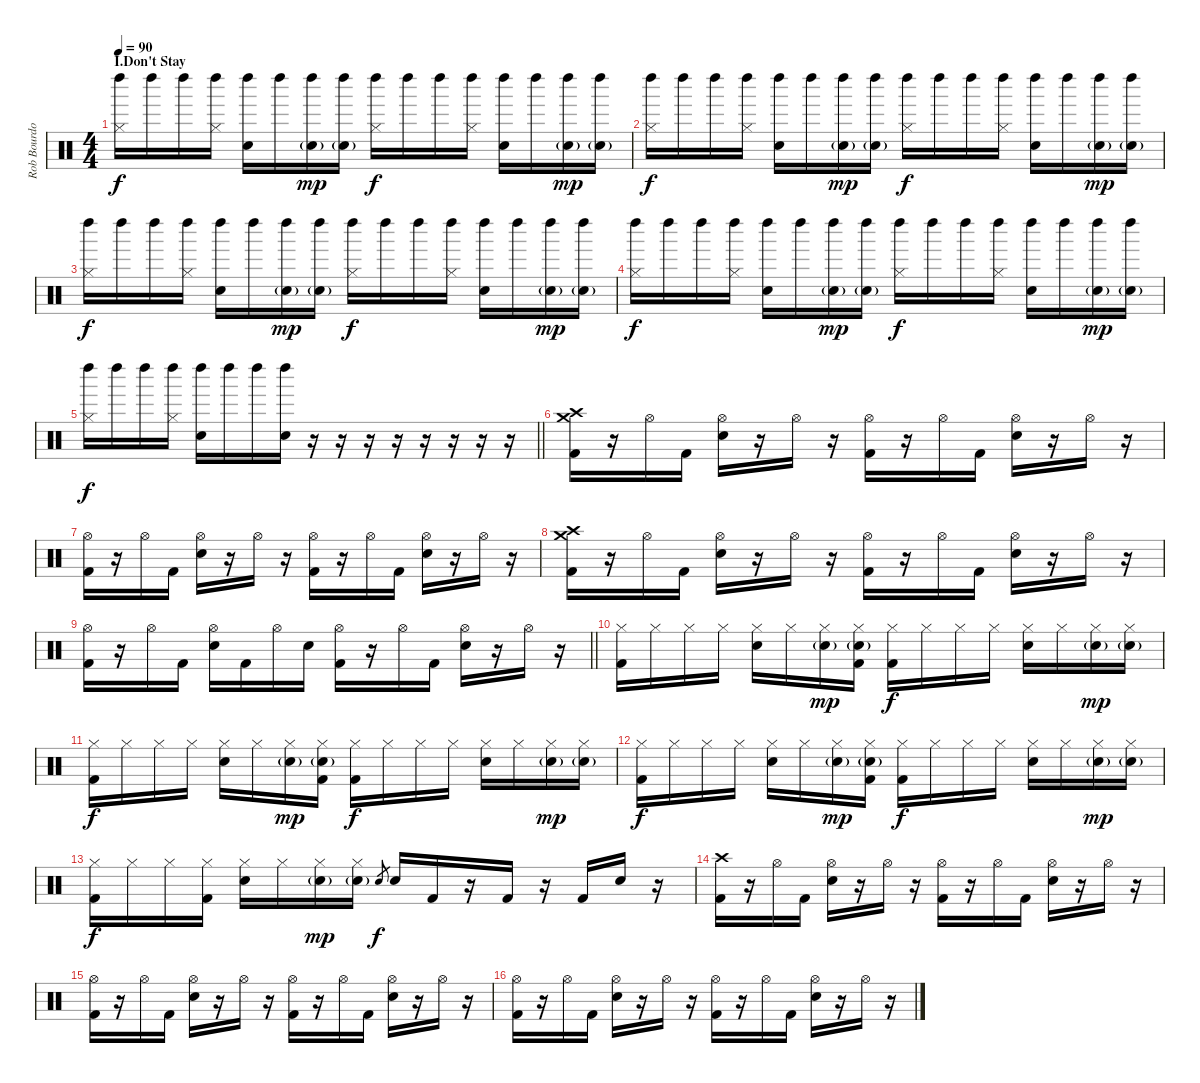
\track ("Rob Bourdon - Drums" "Rob Bourdo") {instrument percussion}
\staff {score}
\articulation defaults
\ts (4 4)
\section ("" "I.Don't Stay")
\tempo 90
\clef neutral
\ks c
("Left Maraca (hit)" "Hi-Hat (closed)").16{dy f} "Left Maraca (hit)".16 "Left Maraca (hit)".16 ("Left Maraca (hit)" "Hi-Hat (closed)").16 ("Left Maraca (hit)" "Hand Clap (hit)").16 "Left Maraca (hit)".16 ("Left Maraca (hit)" "Hand Clap (hit)"{g}).16{dy mp} ("Left Maraca (hit)" "Hand Clap (hit)"{g}).16 ("Left Maraca (hit)" "Hi-Hat (closed)").16{dy f} "Left Maraca (hit)".16 "Left Maraca (hit)".16 ("Left Maraca (hit)" "Hi-Hat (closed)").16 ("Left Maraca (hit)" "Hand Clap (hit)").16 "Left Maraca (hit)".16 ("Left Maraca (hit)" "Hand Clap (hit)"{g}).16{dy mp} ("Left Maraca (hit)" "Hand Clap (hit)"{g}).16 |
("Left Maraca (hit)" "Hi-Hat (closed)").16{dy f} "Left Maraca (hit)".16 "Left Maraca (hit)".16 ("Left Maraca (hit)" "Hi-Hat (closed)").16 ("Left Maraca (hit)" "Hand Clap (hit)").16 "Left Maraca (hit)".16 ("Left Maraca (hit)" "Hand Clap (hit)"{g}).16{dy mp} ("Left Maraca (hit)" "Hand Clap (hit)"{g}).16 ("Left Maraca (hit)" "Hi-Hat (closed)").16{dy f} "Left Maraca (hit)".16 "Left Maraca (hit)".16 ("Left Maraca (hit)" "Hi-Hat (closed)").16 ("Left Maraca (hit)" "Hand Clap (hit)").16 "Left Maraca (hit)".16 ("Left Maraca (hit)" "Hand Clap (hit)"{g}).16{dy mp} ("Left Maraca (hit)" "Hand Clap (hit)"{g}).16 |
("Left Maraca (hit)" "Hi-Hat (closed)").16{dy f} "Left Maraca (hit)".16 "Left Maraca (hit)".16 ("Left Maraca (hit)" "Hi-Hat (closed)").16 ("Left Maraca (hit)" "Hand Clap (hit)").16 "Left Maraca (hit)".16 ("Left Maraca (hit)" "Hand Clap (hit)"{g}).16{dy mp} ("Left Maraca (hit)" "Hand Clap (hit)"{g}).16 ("Left Maraca (hit)" "Hi-Hat (closed)").16{dy f} "Left Maraca (hit)".16 "Left Maraca (hit)".16 ("Left Maraca (hit)" "Hi-Hat (closed)").16 ("Left Maraca (hit)" "Hand Clap (hit)").16 "Left Maraca (hit)".16 ("Left Maraca (hit)" "Hand Clap (hit)"{g}).16{dy mp} ("Left Maraca (hit)" "Hand Clap (hit)"{g}).16 |
("Left Maraca (hit)" "Hi-Hat (closed)").16{dy f} "Left Maraca (hit)".16 "Left Maraca (hit)".16 ("Left Maraca (hit)" "Hi-Hat (closed)").16 ("Left Maraca (hit)" "Hand Clap (hit)").16 "Left Maraca (hit)".16 ("Left Maraca (hit)" "Hand Clap (hit)"{g}).16{dy mp} ("Left Maraca (hit)" "Hand Clap (hit)"{g}).16 ("Left Maraca (hit)" "Hi-Hat (closed)").16{dy f} "Left Maraca (hit)".16 "Left Maraca (hit)".16 ("Left Maraca (hit)" "Hi-Hat (closed)").16 ("Left Maraca (hit)" "Hand Clap (hit)").16 "Left Maraca (hit)".16 ("Left Maraca (hit)" "Hand Clap (hit)"{g}).16{dy mp} ("Left Maraca (hit)" "Hand Clap (hit)"{g}).16 |
\barLineRight lightlight
("Left Maraca (hit)" "Hi-Hat (closed)").16{dy f} "Left Maraca (hit)".16 "Left Maraca (hit)".16 ("Left Maraca (hit)" "Hi-Hat (closed)").16 ("Left Maraca (hit)" "Hand Clap (hit)").16 "Left Maraca (hit)".16 "Left Maraca (hit)".16 ("Left Maraca (hit)" "Hand Clap (hit)").16 r.16 r.16 r.16 r.16 r.16 r.16 r.16 r.16 |
("Crash high (hit)" "Crash medium (hit)" "Kick (hit) 2").16 r.16 "Hi-Hat (open)".16 "Kick (hit) 2".16 ("Hi-Hat (open)" "Electric Snare (hit)").16 r.16 "Hi-Hat (open)".16 r.16 ("Hi-Hat (open)" "Kick (hit) 2").16 r.16 "Hi-Hat (open)".16 "Kick (hit) 2".16 ("Hi-Hat (open)" "Electric Snare (hit)").16 r.16 "Hi-Hat (open)".16 r.16 |
("Hi-Hat (open)" "Kick (hit) 2").16 r.16 "Hi-Hat (open)".16 "Kick (hit) 2".16 ("Hi-Hat (open)" "Electric Snare (hit)").16 r.16 "Hi-Hat (open)".16 r.16 ("Hi-Hat (open)" "Kick (hit) 2").16 r.16 "Hi-Hat (open)".16 "Kick (hit) 2".16 ("Hi-Hat (open)" "Electric Snare (hit)").16 r.16 "Hi-Hat (open)".16 r.16 |
("Crash high (hit)" "Crash medium (hit)" "Kick (hit) 2").16 r.16 "Hi-Hat (open)".16 "Kick (hit) 2".16 ("Hi-Hat (open)" "Electric Snare (hit)").16 r.16 "Hi-Hat (open)".16 r.16 ("Hi-Hat (open)" "Kick (hit) 2").16 r.16 "Hi-Hat (open)".16 "Kick (hit) 2".16 ("Hi-Hat (open)" "Electric Snare (hit)").16 r.16 "Hi-Hat (open)".16 r.16 |
\barLineRight lightlight
("Hi-Hat (open)" "Kick (hit) 2").16 r.16 "Hi-Hat (open)".16 "Kick (hit) 2".16 ("Hi-Hat (open)" "Electric Snare (hit)").16 "Kick (hit) 2".16 "Hi-Hat (open)".16 "Electric Snare (hit)".16 ("Hi-Hat (open)" "Kick (hit) 2").16 r.16 "Hi-Hat (open)".16 "Kick (hit) 2".16 ("Hi-Hat (open)" "Electric Snare (hit)").16 r.16 "Hi-Hat (open)".16 r.16 |
("Hi-Hat (closed)" "Kick (hit) 2").16 "Hi-Hat (closed)".16 "Hi-Hat (closed)".16 "Hi-Hat (closed)".16 ("Hi-Hat (closed)" "Hand Clap (hit)").16 "Hi-Hat (closed)".16 ("Hi-Hat (closed)" "Hand Clap (hit)"{g}).16{dy mp} ("Hi-Hat (closed)" "Hand Clap (hit)"{g} "Kick (hit) 2").16 ("Hi-Hat (closed)" "Kick (hit) 2").16{dy f} "Hi-Hat (closed)".16 "Hi-Hat (closed)".16 "Hi-Hat (closed)".16 ("Hi-Hat (closed)" "Hand Clap (hit)").16 "Hi-Hat (closed)".16 ("Hi-Hat (closed)" "Hand Clap (hit)"{g}).16{dy mp} ("Hi-Hat (closed)" "Hand Clap (hit)"{g}).16 |
("Hi-Hat (closed)" "Kick (hit) 2").16{dy f} "Hi-Hat (closed)".16 "Hi-Hat (closed)".16 "Hi-Hat (closed)".16 ("Hi-Hat (closed)" "Hand Clap (hit)").16 "Hi-Hat (closed)".16 ("Hi-Hat (closed)" "Hand Clap (hit)"{g}).16{dy mp} ("Hi-Hat (closed)" "Hand Clap (hit)"{g} "Kick (hit) 2").16 ("Hi-Hat (closed)" "Kick (hit) 2").16{dy f} "Hi-Hat (closed)".16 "Hi-Hat (closed)".16 "Hi-Hat (closed)".16 ("Hi-Hat (closed)" "Hand Clap (hit)").16 "Hi-Hat (closed)".16 ("Hi-Hat (closed)" "Hand Clap (hit)"{g}).16{dy mp} ("Hi-Hat (closed)" "Hand Clap (hit)"{g}).16 |
("Hi-Hat (closed)" "Kick (hit) 2").16{dy f} "Hi-Hat (closed)".16 "Hi-Hat (closed)".16 "Hi-Hat (closed)".16 ("Hi-Hat (closed)" "Hand Clap (hit)").16 "Hi-Hat (closed)".16 ("Hi-Hat (closed)" "Hand Clap (hit)"{g}).16{dy mp} ("Hi-Hat (closed)" "Hand Clap (hit)"{g} "Kick (hit) 2").16 ("Hi-Hat (closed)" "Kick (hit) 2").16{dy f} "Hi-Hat (closed)".16 "Hi-Hat (closed)".16 "Hi-Hat (closed)".16 ("Hi-Hat (closed)" "Hand Clap (hit)").16 "Hi-Hat (closed)".16 ("Hi-Hat (closed)" "Hand Clap (hit)"{g}).16{dy mp} ("Hi-Hat (closed)" "Hand Clap (hit)"{g}).16 |
("Hi-Hat (closed)" "Kick (hit) 2").16{dy f} "Hi-Hat (closed)".16 "Hi-Hat (closed)".16 ("Hi-Hat (closed)" "Kick (hit) 2").16 ("Hi-Hat (closed)" "Hand Clap (hit)").16 "Hi-Hat (closed)".16 ("Hi-Hat (closed)" "Hand Clap (hit)"{g}).16{dy mp} ("Hi-Hat (closed)" "Hand Clap (hit)"{g}).16 "Electric Snare (hit)".8{gr dy f} "Electric Snare (hit)".16 "Kick (hit) 2".16 r.16 "Kick (hit) 2".16 r.16 "Kick (hit) 2".16 "Electric Snare (hit)".16 r.16 |
("Crash high (hit)" "Kick (hit) 2").16 r.16 "Hi-Hat (open)".16 "Kick (hit) 2".16 ("Hi-Hat (open)" "Electric Snare (hit)").16 r.16 "Hi-Hat (open)".16 r.16 ("Hi-Hat (open)" "Kick (hit) 2").16 r.16 "Hi-Hat (open)".16 "Kick (hit) 2".16 ("Hi-Hat (open)" "Electric Snare (hit)").16 r.16 "Hi-Hat (open)".16 r.16 |
("Hi-Hat (open)" "Kick (hit) 2").16 r.16 "Hi-Hat (open)".16 "Kick (hit) 2".16 ("Hi-Hat (open)" "Electric Snare (hit)").16 r.16 "Hi-Hat (open)".16 r.16 ("Hi-Hat (open)" "Kick (hit) 2").16 r.16 "Hi-Hat (open)".16 "Kick (hit) 2".16 ("Hi-Hat (open)" "Electric Snare (hit)").16 r.16 "Hi-Hat (open)".16 r.16 |
("Hi-Hat (open)" "Kick (hit) 2").16 r.16 "Hi-Hat (open)".16 "Kick (hit) 2".16 ("Hi-Hat (open)" "Electric Snare (hit)").16 r.16 "Hi-Hat (open)".16 r.16 ("Hi-Hat (open)" "Kick (hit) 2").16 r.16 "Hi-Hat (open)".16 "Kick (hit) 2".16 ("Hi-Hat (open)" "Electric Snare (hit)").16 r.16 "Hi-Hat (open)".16 r.16
